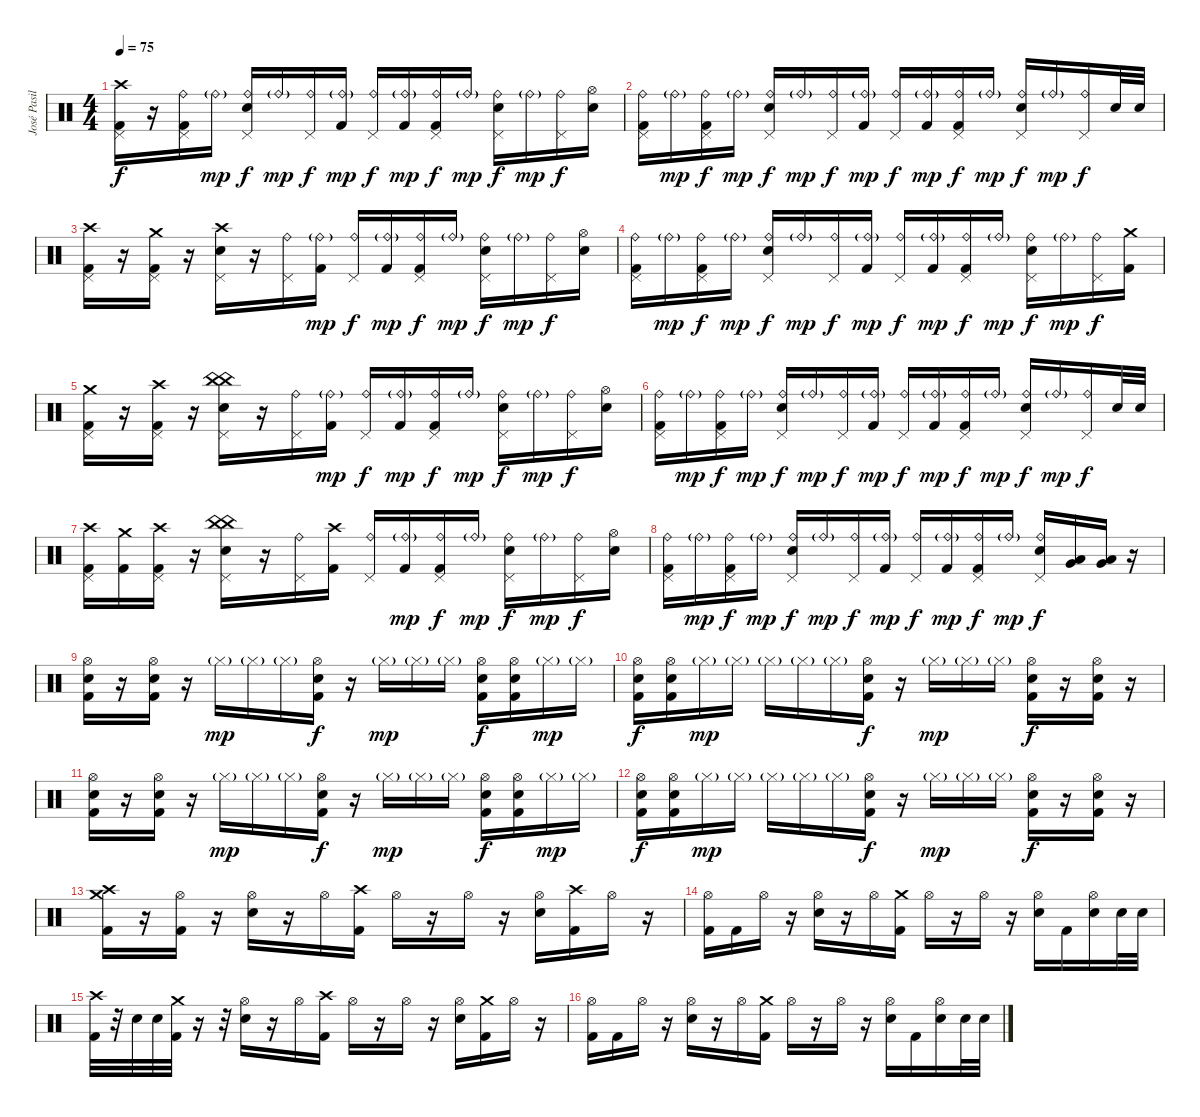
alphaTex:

\track ("José Pasillas" "José Pasil") {instrument percussion}
\staff {score}
\articulation defaults
\ts (4 4)
\tempo 75
\clef neutral
\ks c
("Crash high (hit)" "Kick (hit) 2" "Pedal Hi-Hat (hit)").16{dy f} r.16 ("Ride (bell)" "Kick (hit) 2" "Pedal Hi-Hat (hit)").16 "Ride (bell)"{g}.16{dy mp} ("Ride (bell)" "Electric Snare (hit)" "Pedal Hi-Hat (hit)").16{dy f} "Ride (bell)"{g}.16{dy mp} ("Ride (bell)" "Pedal Hi-Hat (hit)").16{dy f} ("Ride (bell)"{g} "Kick (hit) 2").16{dy mp} ("Ride (bell)" "Pedal Hi-Hat (hit)").16{dy f} ("Ride (bell)"{g} "Kick (hit) 2").16{dy mp} ("Ride (bell)" "Kick (hit) 2" "Pedal Hi-Hat (hit)").16{dy f} "Ride (bell)"{g}.16{dy mp} ("Ride (bell)" "Electric Snare (hit)" "Pedal Hi-Hat (hit)").16{dy f} "Ride (bell)"{g}.16{dy mp} ("Ride (bell)" "Pedal Hi-Hat (hit)").16{dy f} ("Hi-Hat (open)" "Electric Snare (hit)").16 |
("Ride (bell)" "Kick (hit) 2" "Pedal Hi-Hat (hit)").16 "Ride (bell)"{g}.16{dy mp} ("Ride (bell)" "Kick (hit) 2" "Pedal Hi-Hat (hit)").16{dy f} "Ride (bell)"{g}.16{dy mp} ("Ride (bell)" "Electric Snare (hit)" "Pedal Hi-Hat (hit)").16{dy f} "Ride (bell)"{g}.16{dy mp} ("Ride (bell)" "Pedal Hi-Hat (hit)").16{dy f} ("Ride (bell)"{g} "Kick (hit) 2").16{dy mp} ("Ride (bell)" "Pedal Hi-Hat (hit)").16{dy f} ("Ride (bell)"{g} "Kick (hit) 2").16{dy mp} ("Ride (bell)" "Kick (hit) 2" "Pedal Hi-Hat (hit)").16{dy f} "Ride (bell)"{g}.16{dy mp} ("Ride (bell)" "Electric Snare (hit)" "Pedal Hi-Hat (hit)").16{dy f} "Ride (bell)"{g}.16{dy mp} ("Ride (bell)" "Pedal Hi-Hat (hit)").16{dy f} "Electric Snare (hit)".32 "Electric Snare (hit)".32 |
("Crash high (hit)" "Kick (hit) 2" "Pedal Hi-Hat (hit)").16 r.16 ("Crash medium (hit)" "Kick (hit) 2" "Pedal Hi-Hat (hit)").16 r.16 ("Crash high (hit)" "Electric Snare (hit)" "Pedal Hi-Hat (hit)").16 r.16 ("Ride (bell)" "Pedal Hi-Hat (hit)").16 ("Ride (bell)"{g} "Kick (hit) 2").16{dy mp} ("Ride (bell)" "Pedal Hi-Hat (hit)").16{dy f} ("Ride (bell)"{g} "Kick (hit) 2").16{dy mp} ("Ride (bell)" "Kick (hit) 2" "Pedal Hi-Hat (hit)").16{dy f} "Ride (bell)"{g}.16{dy mp} ("Ride (bell)" "Electric Snare (hit)" "Pedal Hi-Hat (hit)").16{dy f} "Ride (bell)"{g}.16{dy mp} ("Ride (bell)" "Pedal Hi-Hat (hit)").16{dy f} ("Hi-Hat (open)" "Electric Snare (hit)").16 |
("Ride (bell)" "Kick (hit) 2" "Pedal Hi-Hat (hit)").16 "Ride (bell)"{g}.16{dy mp} ("Ride (bell)" "Kick (hit) 2" "Pedal Hi-Hat (hit)").16{dy f} "Ride (bell)"{g}.16{dy mp} ("Ride (bell)" "Electric Snare (hit)" "Pedal Hi-Hat (hit)").16{dy f} "Ride (bell)"{g}.16{dy mp} ("Ride (bell)" "Pedal Hi-Hat (hit)").16{dy f} ("Ride (bell)"{g} "Kick (hit) 2").16{dy mp} ("Ride (bell)" "Pedal Hi-Hat (hit)").16{dy f} ("Ride (bell)"{g} "Kick (hit) 2").16{dy mp} ("Ride (bell)" "Kick (hit) 2" "Pedal Hi-Hat (hit)").16{dy f} "Ride (bell)"{g}.16{dy mp} ("Ride (bell)" "Electric Snare (hit)" "Pedal Hi-Hat (hit)").16{dy f} "Ride (bell)"{g}.16{dy mp} ("Ride (bell)" "Pedal Hi-Hat (hit)").16{dy f} ("Crash medium (hit)" "Kick (hit) 2").16 |
("Crash medium (hit)" "Kick (hit) 2" "Pedal Hi-Hat (hit)").16 r.16 ("Crash high (hit)" "Kick (hit) 2" "Pedal Hi-Hat (hit)").16 r.16 ("China (hit)" "China (hit)" "Electric Snare (hit)" "Pedal Hi-Hat (hit)").16 r.16 ("Ride (bell)" "Pedal Hi-Hat (hit)").16 ("Ride (bell)"{g} "Kick (hit) 2").16{dy mp} ("Ride (bell)" "Pedal Hi-Hat (hit)").16{dy f} ("Ride (bell)"{g} "Kick (hit) 2").16{dy mp} ("Ride (bell)" "Kick (hit) 2" "Pedal Hi-Hat (hit)").16{dy f} "Ride (bell)"{g}.16{dy mp} ("Ride (bell)" "Electric Snare (hit)" "Pedal Hi-Hat (hit)").16{dy f} "Ride (bell)"{g}.16{dy mp} ("Ride (bell)" "Pedal Hi-Hat (hit)").16{dy f} ("Hi-Hat (open)" "Electric Snare (hit)").16 |
("Ride (bell)" "Kick (hit) 2" "Pedal Hi-Hat (hit)").16 "Ride (bell)"{g}.16{dy mp} ("Ride (bell)" "Kick (hit) 2" "Pedal Hi-Hat (hit)").16{dy f} "Ride (bell)"{g}.16{dy mp} ("Ride (bell)" "Electric Snare (hit)" "Pedal Hi-Hat (hit)").16{dy f} "Ride (bell)"{g}.16{dy mp} ("Ride (bell)" "Pedal Hi-Hat (hit)").16{dy f} ("Ride (bell)"{g} "Kick (hit) 2").16{dy mp} ("Ride (bell)" "Pedal Hi-Hat (hit)").16{dy f} ("Ride (bell)"{g} "Kick (hit) 2").16{dy mp} ("Ride (bell)" "Kick (hit) 2" "Pedal Hi-Hat (hit)").16{dy f} "Ride (bell)"{g}.16{dy mp} ("Ride (bell)" "Electric Snare (hit)" "Pedal Hi-Hat (hit)").16{dy f} "Ride (bell)"{g}.16{dy mp} ("Ride (bell)" "Pedal Hi-Hat (hit)").16{dy f} "Electric Snare (hit)".32 "Electric Snare (hit)".32 |
("Crash high (hit)" "Kick (hit) 2" "Pedal Hi-Hat (hit)").16 ("Crash medium (hit)" "Kick (hit) 2").16 ("Crash high (hit)" "Kick (hit) 2" "Pedal Hi-Hat (hit)").16 r.16 ("China (hit)" "China (hit)" "Electric Snare (hit)" "Pedal Hi-Hat (hit)").16 r.16 ("Ride (bell)" "Pedal Hi-Hat (hit)").16 ("Crash high (hit)" "Kick (hit) 2").16 ("Ride (bell)" "Pedal Hi-Hat (hit)").16 ("Ride (bell)"{g} "Kick (hit) 2").16{dy mp} ("Ride (bell)" "Kick (hit) 2" "Pedal Hi-Hat (hit)").16{dy f} "Ride (bell)"{g}.16{dy mp} ("Ride (bell)" "Electric Snare (hit)" "Pedal Hi-Hat (hit)").16{dy f} "Ride (bell)"{g}.16{dy mp} ("Ride (bell)" "Pedal Hi-Hat (hit)").16{dy f} ("Hi-Hat (open)" "Electric Snare (hit)").16 |
("Ride (bell)" "Kick (hit) 2" "Pedal Hi-Hat (hit)").16 "Ride (bell)"{g}.16{dy mp} ("Ride (bell)" "Kick (hit) 2" "Pedal Hi-Hat (hit)").16{dy f} "Ride (bell)"{g}.16{dy mp} ("Ride (bell)" "Electric Snare (hit)" "Pedal Hi-Hat (hit)").16{dy f} "Ride (bell)"{g}.16{dy mp} ("Ride (bell)" "Pedal Hi-Hat (hit)").16{dy f} ("Ride (bell)"{g} "Kick (hit) 2").16{dy mp} ("Ride (bell)" "Pedal Hi-Hat (hit)").16{dy f} ("Ride (bell)"{g} "Kick (hit) 2").16{dy mp} ("Ride (bell)" "Kick (hit) 2" "Pedal Hi-Hat (hit)").16{dy f} "Ride (bell)"{g}.16{dy mp} ("Ride (bell)" "Electric Snare (hit)" "Pedal Hi-Hat (hit)").16{dy f} ("Low Tom (hit)" "Very Low Tom (hit)").16 ("Low Tom (hit)" "Very Low Tom (hit)").16 r.16 |
("Hi-Hat (open)" "Electric Snare (hit)" "Kick (hit) 2").16 r.16 ("Hi-Hat (open)" "Electric Snare (hit)" "Kick (hit) 2").16 r.16 "Hi-Hat (closed)"{g}.16{dy mp} "Hi-Hat (closed)"{g}.16 "Hi-Hat (closed)"{g}.16 ("Hi-Hat (open)" "Electric Snare (hit)" "Kick (hit) 2").16{dy f} r.16 "Hi-Hat (closed)"{g}.16{dy mp} "Hi-Hat (closed)"{g}.16 "Hi-Hat (closed)"{g}.16 ("Hi-Hat (open)" "Electric Snare (hit)" "Kick (hit) 2").16{dy f} ("Hi-Hat (open)" "Electric Snare (hit)" "Kick (hit) 2").16 "Hi-Hat (closed)"{g}.16{dy mp} "Hi-Hat (closed)"{g}.16 |
("Hi-Hat (open)" "Electric Snare (hit)" "Kick (hit) 2").16{dy f} ("Hi-Hat (open)" "Electric Snare (hit)" "Kick (hit) 2").16 "Hi-Hat (closed)"{g}.16{dy mp} "Hi-Hat (closed)"{g}.16 "Hi-Hat (closed)"{g}.16 "Hi-Hat (closed)"{g}.16 "Hi-Hat (closed)"{g}.16 ("Hi-Hat (open)" "Electric Snare (hit)" "Kick (hit) 2").16{dy f} r.16 "Hi-Hat (closed)"{g}.16{dy mp} "Hi-Hat (closed)"{g}.16 "Hi-Hat (closed)"{g}.16 ("Hi-Hat (open)" "Electric Snare (hit)" "Kick (hit) 2").16{dy f} r.16 ("Hi-Hat (open)" "Electric Snare (hit)" "Kick (hit) 2").16 r.16 |
("Hi-Hat (open)" "Electric Snare (hit)" "Kick (hit) 2").16 r.16 ("Hi-Hat (open)" "Electric Snare (hit)" "Kick (hit) 2").16 r.16 "Hi-Hat (closed)"{g}.16{dy mp} "Hi-Hat (closed)"{g}.16 "Hi-Hat (closed)"{g}.16 ("Hi-Hat (open)" "Electric Snare (hit)" "Kick (hit) 2").16{dy f} r.16 "Hi-Hat (closed)"{g}.16{dy mp} "Hi-Hat (closed)"{g}.16 "Hi-Hat (closed)"{g}.16 ("Hi-Hat (open)" "Electric Snare (hit)" "Kick (hit) 2").16{dy f} ("Hi-Hat (open)" "Electric Snare (hit)" "Kick (hit) 2").16 "Hi-Hat (closed)"{g}.16{dy mp} "Hi-Hat (closed)"{g}.16 |
("Hi-Hat (open)" "Electric Snare (hit)" "Kick (hit) 2").16{dy f} ("Hi-Hat (open)" "Electric Snare (hit)" "Kick (hit) 2").16 "Hi-Hat (closed)"{g}.16{dy mp} "Hi-Hat (closed)"{g}.16 "Hi-Hat (closed)"{g}.16 "Hi-Hat (closed)"{g}.16 "Hi-Hat (closed)"{g}.16 ("Hi-Hat (open)" "Electric Snare (hit)" "Kick (hit) 2").16{dy f} r.16 "Hi-Hat (closed)"{g}.16{dy mp} "Hi-Hat (closed)"{g}.16 "Hi-Hat (closed)"{g}.16 ("Hi-Hat (open)" "Electric Snare (hit)" "Kick (hit) 2").16{dy f} r.16 ("Hi-Hat (open)" "Electric Snare (hit)" "Kick (hit) 2").16 r.16 |
("Crash high (hit)" "Crash medium (hit)" "Kick (hit) 2").16 r.16 ("Hi-Hat (open)" "Kick (hit) 2").16 r.16 ("Hi-Hat (open)" "Electric Snare (hit)").16 r.16 "Hi-Hat (open)".16 ("Crash high (hit)" "Kick (hit) 2").16 "Hi-Hat (open)".16 r.16 "Hi-Hat (open)".16 r.16 ("Hi-Hat (open)" "Electric Snare (hit)").16 ("Crash high (hit)" "Kick (hit) 2").16 "Hi-Hat (open)".16 r.16 |
("Hi-Hat (open)" "Kick (hit) 2").16 "Kick (hit) 2".16 "Hi-Hat (open)".16 r.16 ("Hi-Hat (open)" "Electric Snare (hit)").16 r.16 "Hi-Hat (open)".16 ("Crash medium (hit)" "Kick (hit) 2").16 "Hi-Hat (open)".16 r.16 "Hi-Hat (open)".16 r.16 ("Hi-Hat (open)" "Electric Snare (hit)").16 "Kick (hit) 2".16 ("Hi-Hat (open)" "Electric Snare (hit)").16 "Electric Snare (hit)".32 "Electric Snare (hit)".32 |
("Crash high (hit)" "Kick (hit) 2").32 r.32 "Electric Snare (hit)".32 "Electric Snare (hit)".32 ("Crash medium (hit)" "Kick (hit) 2").32 r.16 r.32 ("Hi-Hat (open)" "Electric Snare (hit)").16 r.16 "Hi-Hat (open)".16 ("Crash high (hit)" "Kick (hit) 2").16 "Hi-Hat (open)".16 r.16 "Hi-Hat (open)".16 r.16 ("Hi-Hat (open)" "Electric Snare (hit)").16 ("Crash medium (hit)" "Kick (hit) 2").16 "Hi-Hat (open)".16 r.16 |
("Hi-Hat (open)" "Kick (hit) 2").16 "Kick (hit) 2".16 "Hi-Hat (open)".16 r.16 ("Hi-Hat (open)" "Electric Snare (hit)").16 r.16 "Hi-Hat (open)".16 ("Crash medium (hit)" "Kick (hit) 2").16 "Hi-Hat (open)".16 r.16 "Hi-Hat (open)".16 r.16 ("Hi-Hat (open)" "Electric Snare (hit)").16 "Kick (hit) 2".16 ("Hi-Hat (open)" "Electric Snare (hit)").16 "Electric Snare (hit)".32 "Electric Snare (hit)".32
